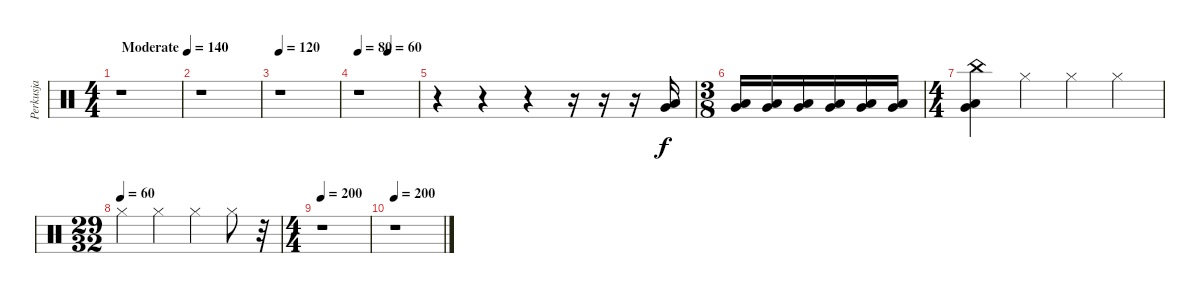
\track ("Perkusja" "Perkusja") {instrument percussion}
\staff {score}
\articulation defaults
\ts (4 4)
\tempo (140 "Moderate")
\clef neutral
\ks c
r.1{dy f} |
r.1 |
\tempo 120
r.1 |
\tempo 80
\tempo (60 0.5)
r.1 |
r.4 r.4 r.4 r.16 r.16 r.16 ("Low Tom (hit)" "Very Low Tom (hit)").16 |
\ts (3 8)
("Low Tom (hit)" "Very Low Tom (hit)").16 ("Low Tom (hit)" "Very Low Tom (hit)").16 ("Low Tom (hit)" "Very Low Tom (hit)").16 ("Low Tom (hit)" "Very Low Tom (hit)").16 ("Low Tom (hit)" "Very Low Tom (hit)").16 ("Low Tom (hit)" "Very Low Tom (hit)").16 |
\ts (4 4)
("China (hit)" "Low Tom (hit)" "Very Low Tom (hit)").4 "Hi-Hat (closed)".4 "Hi-Hat (closed)".4 "Hi-Hat (closed)".4 |
\ts (29 32)
\tempo (60)
"Hi-Hat (closed)".4 "Hi-Hat (closed)".4 "Hi-Hat (closed)".4 "Hi-Hat (closed)".8 r.32 |
\ts (4 4)
\tempo 200
r.1 |
\tempo 200
r.1
